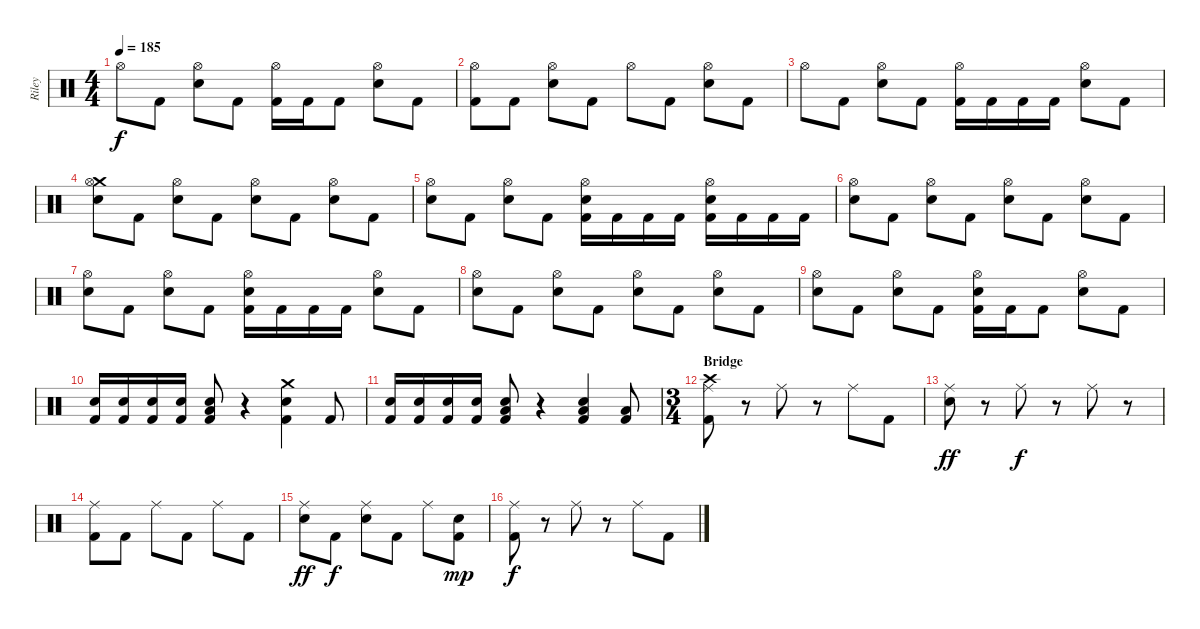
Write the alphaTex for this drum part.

\track ("Riley" "Riley") {instrument percussion}
\staff {score}
\articulation defaults
\ts (4 4)
\tempo 185
\clef neutral
\ks c "Hi-Hat (open)".8{dy f} "Kick (hit) 2".8
("Hi-Hat (open)" "Electric Snare (hit)").8 "Kick (hit) 2".8 ("Hi-Hat (open)" "Kick (hit) 2").16 "Kick (hit) 2".16 "Kick (hit) 2".8 ("Hi-Hat (open)" "Electric Snare (hit)").8 "Kick (hit) 2".8 |
("Hi-Hat (open)" "Kick (hit) 2").8 "Kick (hit) 2".8 ("Hi-Hat (open)" "Electric Snare (hit)").8 "Kick (hit) 2".8 "Hi-Hat (open)".8 "Kick (hit) 2".8 ("Hi-Hat (open)" "Electric Snare (hit)").8 "Kick (hit) 2".8 |
"Hi-Hat (open)".8 "Kick (hit) 2".8 ("Hi-Hat (open)" "Electric Snare (hit)").8 "Kick (hit) 2".8 ("Hi-Hat (open)" "Kick (hit) 2").16 "Kick (hit) 2".16 "Kick (hit) 2".16 "Kick (hit) 2".16 ("Hi-Hat (open)" "Electric Snare (hit)").8 "Kick (hit) 2".8 |
("Crash medium (hit)" "Hi-Hat (open)" "Electric Snare (hit)").8 "Kick (hit) 2".8 ("Hi-Hat (open)" "Electric Snare (hit)").8 "Kick (hit) 2".8 ("Hi-Hat (open)" "Electric Snare (hit)").8 "Kick (hit) 2".8 ("Hi-Hat (open)" "Electric Snare (hit)").8 "Kick (hit) 2".8 |
("Hi-Hat (open)" "Electric Snare (hit)").8 "Kick (hit) 2".8 ("Hi-Hat (open)" "Electric Snare (hit)").8 "Kick (hit) 2".8 ("Hi-Hat (open)" "Electric Snare (hit)" "Kick (hit) 2").16 "Kick (hit) 2".16 "Kick (hit) 2".16 "Kick (hit) 2".16 ("Hi-Hat (open)" "Electric Snare (hit)" "Kick (hit) 2").16 "Kick (hit) 2".16 "Kick (hit) 2".16 "Kick (hit) 2".16 |
("Hi-Hat (open)" "Electric Snare (hit)").8 "Kick (hit) 2".8 ("Hi-Hat (open)" "Electric Snare (hit)").8 "Kick (hit) 2".8 ("Hi-Hat (open)" "Electric Snare (hit)").8 "Kick (hit) 2".8 ("Hi-Hat (open)" "Electric Snare (hit)").8 "Kick (hit) 2".8 |
("Hi-Hat (open)" "Electric Snare (hit)").8 "Kick (hit) 2".8 ("Hi-Hat (open)" "Electric Snare (hit)").8 "Kick (hit) 2".8 ("Hi-Hat (open)" "Electric Snare (hit)" "Kick (hit) 2").16 "Kick (hit) 2".16 "Kick (hit) 2".16 "Kick (hit) 2".16 ("Hi-Hat (open)" "Electric Snare (hit)").8 "Kick (hit) 2".8 |
("Hi-Hat (open)" "Electric Snare (hit)").8 "Kick (hit) 2".8 ("Hi-Hat (open)" "Electric Snare (hit)").8 "Kick (hit) 2".8 ("Hi-Hat (open)" "Electric Snare (hit)").8 "Kick (hit) 2".8 ("Hi-Hat (open)" "Electric Snare (hit)").8 "Kick (hit) 2".8 |
("Hi-Hat (open)" "Electric Snare (hit)").8 "Kick (hit) 2".8 ("Hi-Hat (open)" "Electric Snare (hit)").8 "Kick (hit) 2".8 ("Hi-Hat (open)" "Electric Snare (hit)" "Kick (hit) 2").16 "Kick (hit) 2".16 "Kick (hit) 2".8 ("Hi-Hat (open)" "Electric Snare (hit)").8 "Kick (hit) 2".8 |
("Electric Snare (hit)" "Kick (hit) 2").16 ("Electric Snare (hit)" "Kick (hit) 2").16 ("Electric Snare (hit)" "Kick (hit) 2").16 ("Electric Snare (hit)" "Kick (hit) 2").16 ("Low Tom (hit)" "Electric Snare (hit)" "Kick (hit) 2").8 r.4 ("Crash medium (hit)" "Electric Snare (hit)" "Kick (hit) 2").4 "Kick (hit) 2".8 |
("Electric Snare (hit)" "Kick (hit) 2").16 ("Electric Snare (hit)" "Kick (hit) 2").16 ("Electric Snare (hit)" "Kick (hit) 2").16 ("Electric Snare (hit)" "Kick (hit) 2").16 ("Low Tom (hit)" "Electric Snare (hit)" "Kick (hit) 2").8 r.4 ("Low Tom (hit)" "Electric Snare (hit)" "Kick (hit) 2").4 ("Low Tom (hit)" "Kick (hit) 2").8 |
\ts (3 4)
\section ("" "Bridge")
("Crash high (hit)" "Ride (middle)" "Kick (hit) 2").8 r.8 "Ride (middle)".8 r.8 "Ride (middle)".8 "Kick (hit) 2".8 |
("Ride (middle)" "Electric Snare (hit)").8{dy ff} r.8 "Ride (middle)".8{dy f} r.8 "Ride (middle)".8 r.8 |
("Ride (middle)" "Kick (hit) 2").8 "Kick (hit) 2".8 "Ride (middle)".8 "Kick (hit) 2".8 "Ride (middle)".8 "Kick (hit) 2".8 |
("Ride (middle)" "Electric Snare (hit)").8{dy ff} "Kick (hit) 2".8{dy f} ("Ride (middle)" "Electric Snare (hit)").8 "Kick (hit) 2".8 "Ride (middle)".8 ("Electric Snare (hit)" "Kick (hit) 2").8{dy mp} |
("Ride (middle)" "Kick (hit) 2").8{dy f} r.8 "Ride (middle)".8 r.8 "Ride (middle)".8 "Kick (hit) 2".8
